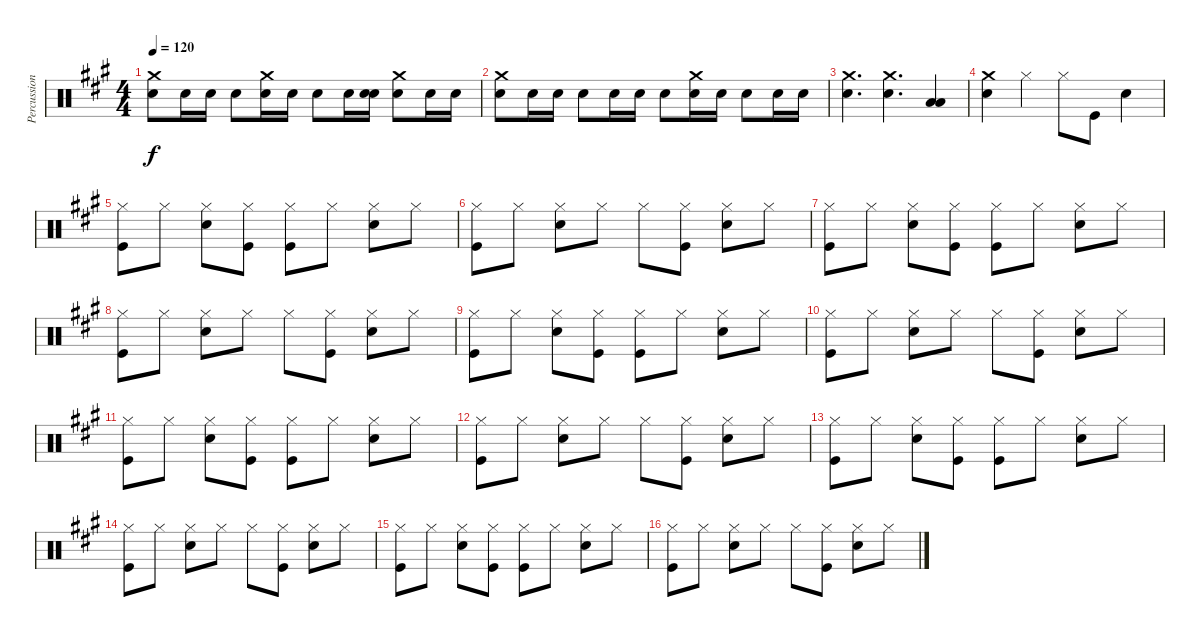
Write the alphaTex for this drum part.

\track ("Percussion" "Percussion") {instrument percussion}
\staff {score}
\articulation defaults
\ts (4 4)
\tempo 120
\clef neutral
\ks a
("Crash medium (hit)" "Snare (hit) 2").8{dy f} "Snare (hit) 2".16 "Snare (hit) 2".16 "Snare (hit) 2".8 ("Crash medium (hit)" "Snare (hit) 2").16 "Snare (hit) 2".16 "Snare (hit) 2".8 "Snare (hit) 2".16 ("Snare (hit)" "Snare (hit) 2").16 ("Crash medium (hit)" "Snare (hit) 2").8 "Snare (hit) 2".16 "Snare (hit) 2".16 |
("Crash medium (hit)" "Snare (hit) 2").8 "Snare (hit) 2".16 "Snare (hit) 2".16 "Snare (hit) 2".8 "Snare (hit) 2".16 "Snare (hit) 2".16 "Snare (hit) 2".8 ("Crash medium (hit)" "Snare (hit) 2").16 "Snare (hit) 2".16 "Snare (hit) 2".8 "Snare (hit) 2".16 "Snare (hit) 2".16 |
("Crash medium (hit)" "Snare (hit) 2").4{d} ("Crash medium (hit)" "Snare (hit) 2").4{d} ("Low Tom (hit)" "Low Floor Tom (hit)").4 |
("Crash medium (hit)" "Snare (hit) 2").4 "Hi-Hat (closed)".4 "Hi-Hat (closed)".8 "Kick (hit)".8 "Snare (hit) 2".4 |
("Hi-Hat (closed)" "Kick (hit)").8 "Hi-Hat (closed)".8 ("Hi-Hat (closed)" "Snare (hit) 2").8 ("Hi-Hat (closed)" "Kick (hit)").8 ("Hi-Hat (closed)" "Kick (hit)").8 "Hi-Hat (closed)".8 ("Hi-Hat (closed)" "Snare (hit) 2").8 "Hi-Hat (closed)".8 |
("Hi-Hat (closed)" "Kick (hit)").8 "Hi-Hat (closed)".8 ("Hi-Hat (closed)" "Snare (hit) 2").8 "Hi-Hat (closed)".8 "Hi-Hat (closed)".8 ("Hi-Hat (closed)" "Kick (hit)").8 ("Hi-Hat (closed)" "Snare (hit) 2").8 "Hi-Hat (closed)".8 |
("Hi-Hat (closed)" "Kick (hit)").8 "Hi-Hat (closed)".8 ("Hi-Hat (closed)" "Snare (hit) 2").8 ("Hi-Hat (closed)" "Kick (hit)").8 ("Hi-Hat (closed)" "Kick (hit)").8 "Hi-Hat (closed)".8 ("Hi-Hat (closed)" "Snare (hit) 2").8 "Hi-Hat (closed)".8 |
("Hi-Hat (closed)" "Kick (hit)").8 "Hi-Hat (closed)".8 ("Hi-Hat (closed)" "Snare (hit) 2").8 "Hi-Hat (closed)".8 "Hi-Hat (closed)".8 ("Hi-Hat (closed)" "Kick (hit)").8 ("Hi-Hat (closed)" "Snare (hit) 2").8 "Hi-Hat (closed)".8 |
("Hi-Hat (closed)" "Kick (hit)").8 "Hi-Hat (closed)".8 ("Hi-Hat (closed)" "Snare (hit) 2").8 ("Hi-Hat (closed)" "Kick (hit)").8 ("Hi-Hat (closed)" "Kick (hit)").8 "Hi-Hat (closed)".8 ("Hi-Hat (closed)" "Snare (hit) 2").8 "Hi-Hat (closed)".8 |
("Hi-Hat (closed)" "Kick (hit)").8 "Hi-Hat (closed)".8 ("Hi-Hat (closed)" "Snare (hit) 2").8 "Hi-Hat (closed)".8 "Hi-Hat (closed)".8 ("Hi-Hat (closed)" "Kick (hit)").8 ("Hi-Hat (closed)" "Snare (hit) 2").8 "Hi-Hat (closed)".8 |
("Hi-Hat (closed)" "Kick (hit)").8 "Hi-Hat (closed)".8 ("Hi-Hat (closed)" "Snare (hit) 2").8 ("Hi-Hat (closed)" "Kick (hit)").8 ("Hi-Hat (closed)" "Kick (hit)").8 "Hi-Hat (closed)".8 ("Hi-Hat (closed)" "Snare (hit) 2").8 "Hi-Hat (closed)".8 |
("Hi-Hat (closed)" "Kick (hit)").8 "Hi-Hat (closed)".8 ("Hi-Hat (closed)" "Snare (hit) 2").8 "Hi-Hat (closed)".8 "Hi-Hat (closed)".8 ("Hi-Hat (closed)" "Kick (hit)").8 ("Hi-Hat (closed)" "Snare (hit) 2").8 "Hi-Hat (closed)".8 |
("Hi-Hat (closed)" "Kick (hit)").8 "Hi-Hat (closed)".8 ("Hi-Hat (closed)" "Snare (hit) 2").8 ("Hi-Hat (closed)" "Kick (hit)").8 ("Hi-Hat (closed)" "Kick (hit)").8 "Hi-Hat (closed)".8 ("Hi-Hat (closed)" "Snare (hit) 2").8 "Hi-Hat (closed)".8 |
("Hi-Hat (closed)" "Kick (hit)").8 "Hi-Hat (closed)".8 ("Hi-Hat (closed)" "Snare (hit) 2").8 "Hi-Hat (closed)".8 "Hi-Hat (closed)".8 ("Hi-Hat (closed)" "Kick (hit)").8 ("Hi-Hat (closed)" "Snare (hit) 2").8 "Hi-Hat (closed)".8 |
("Hi-Hat (closed)" "Kick (hit)").8 "Hi-Hat (closed)".8 ("Hi-Hat (closed)" "Snare (hit) 2").8 ("Hi-Hat (closed)" "Kick (hit)").8 ("Hi-Hat (closed)" "Kick (hit)").8 "Hi-Hat (closed)".8 ("Hi-Hat (closed)" "Snare (hit) 2").8 "Hi-Hat (closed)".8 |
("Hi-Hat (closed)" "Kick (hit)").8 "Hi-Hat (closed)".8 ("Hi-Hat (closed)" "Snare (hit) 2").8 "Hi-Hat (closed)".8 "Hi-Hat (closed)".8 ("Hi-Hat (closed)" "Kick (hit)").8 ("Hi-Hat (closed)" "Snare (hit) 2").8 "Hi-Hat (closed)".8
